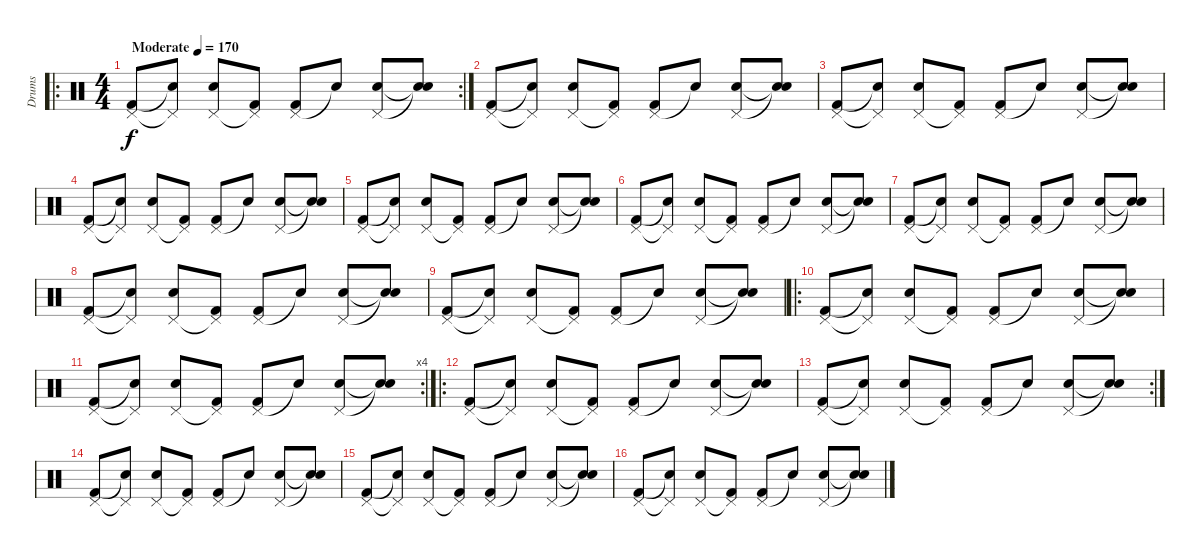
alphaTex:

\track ("Drums" "Drums") {instrument percussion}
\staff {score}
\articulation defaults
\ro
\rc 2
\ts (4 4)
\tempo (170 "Moderate")
\clef neutral
\ks c
("Pedal Hi-Hat (hit)" "Kick (hit) 2").8{dy f} ("Pedal Hi-Hat (hit)"{t} "Snare (hit)"{t}).8 ("Pedal Hi-Hat (hit)" "Snare (hit) 2").8 ("Pedal Hi-Hat (hit)"{t} "Kick (hit) 2").8 ("Pedal Hi-Hat (hit)" "Kick (hit) 2").8 "Snare (hit)"{t}.8 ("Pedal Hi-Hat (hit)" "Snare (hit) 2").8 ("Snare (hit)"{t} "Snare (hit)"{t}).8 |
("Pedal Hi-Hat (hit)" "Kick (hit) 2").8 ("Pedal Hi-Hat (hit)"{t} "Snare (hit)"{t}).8 ("Pedal Hi-Hat (hit)" "Snare (hit) 2").8 ("Pedal Hi-Hat (hit)"{t} "Kick (hit) 2").8 ("Pedal Hi-Hat (hit)" "Kick (hit) 2").8 "Snare (hit)"{t}.8 ("Pedal Hi-Hat (hit)" "Snare (hit) 2").8 ("Snare (hit)"{t} "Snare (hit)"{t}).8 |
("Pedal Hi-Hat (hit)" "Kick (hit) 2").8 ("Pedal Hi-Hat (hit)"{t} "Snare (hit)"{t}).8 ("Pedal Hi-Hat (hit)" "Snare (hit) 2").8 ("Pedal Hi-Hat (hit)"{t} "Kick (hit) 2").8 ("Pedal Hi-Hat (hit)" "Kick (hit) 2").8 "Snare (hit)"{t}.8 ("Pedal Hi-Hat (hit)" "Snare (hit) 2").8 ("Snare (hit)"{t} "Snare (hit)"{t}).8 |
("Pedal Hi-Hat (hit)" "Kick (hit) 2").8 ("Pedal Hi-Hat (hit)"{t} "Snare (hit)"{t}).8 ("Pedal Hi-Hat (hit)" "Snare (hit) 2").8 ("Pedal Hi-Hat (hit)"{t} "Kick (hit) 2").8 ("Pedal Hi-Hat (hit)" "Kick (hit) 2").8 "Snare (hit)"{t}.8 ("Pedal Hi-Hat (hit)" "Snare (hit) 2").8 ("Snare (hit)"{t} "Snare (hit)"{t}).8 |
("Pedal Hi-Hat (hit)" "Kick (hit) 2").8 ("Pedal Hi-Hat (hit)"{t} "Snare (hit)"{t}).8 ("Pedal Hi-Hat (hit)" "Snare (hit) 2").8 ("Pedal Hi-Hat (hit)"{t} "Kick (hit) 2").8 ("Pedal Hi-Hat (hit)" "Kick (hit) 2").8 "Snare (hit)"{t}.8 ("Pedal Hi-Hat (hit)" "Snare (hit) 2").8 ("Snare (hit)"{t} "Snare (hit)"{t}).8 |
("Pedal Hi-Hat (hit)" "Kick (hit) 2").8 ("Pedal Hi-Hat (hit)"{t} "Snare (hit)"{t}).8 ("Pedal Hi-Hat (hit)" "Snare (hit) 2").8 ("Pedal Hi-Hat (hit)"{t} "Kick (hit) 2").8 ("Pedal Hi-Hat (hit)" "Kick (hit) 2").8 "Snare (hit)"{t}.8 ("Pedal Hi-Hat (hit)" "Snare (hit) 2").8 ("Snare (hit)"{t} "Snare (hit)"{t}).8 |
("Pedal Hi-Hat (hit)" "Kick (hit) 2").8 ("Pedal Hi-Hat (hit)"{t} "Snare (hit)"{t}).8 ("Pedal Hi-Hat (hit)" "Snare (hit) 2").8 ("Pedal Hi-Hat (hit)"{t} "Kick (hit) 2").8 ("Pedal Hi-Hat (hit)" "Kick (hit) 2").8 "Snare (hit)"{t}.8 ("Pedal Hi-Hat (hit)" "Snare (hit) 2").8 ("Snare (hit)"{t} "Snare (hit)"{t}).8 |
("Pedal Hi-Hat (hit)" "Kick (hit) 2").8 ("Pedal Hi-Hat (hit)"{t} "Snare (hit)"{t}).8 ("Pedal Hi-Hat (hit)" "Snare (hit) 2").8 ("Pedal Hi-Hat (hit)"{t} "Kick (hit) 2").8 ("Pedal Hi-Hat (hit)" "Kick (hit) 2").8 "Snare (hit)"{t}.8 ("Pedal Hi-Hat (hit)" "Snare (hit) 2").8 ("Snare (hit)"{t} "Snare (hit)"{t}).8 |
("Pedal Hi-Hat (hit)" "Kick (hit) 2").8 ("Pedal Hi-Hat (hit)"{t} "Snare (hit)"{t}).8 ("Pedal Hi-Hat (hit)" "Snare (hit) 2").8 ("Pedal Hi-Hat (hit)"{t} "Kick (hit) 2").8 ("Pedal Hi-Hat (hit)" "Kick (hit) 2").8 "Snare (hit)"{t}.8 ("Pedal Hi-Hat (hit)" "Snare (hit) 2").8 ("Snare (hit)"{t} "Snare (hit)"{t}).8 |
\ro
("Pedal Hi-Hat (hit)" "Kick (hit) 2").8 ("Pedal Hi-Hat (hit)"{t} "Snare (hit)"{t}).8 ("Pedal Hi-Hat (hit)" "Snare (hit) 2").8 ("Pedal Hi-Hat (hit)"{t} "Kick (hit) 2").8 ("Pedal Hi-Hat (hit)" "Kick (hit) 2").8 "Snare (hit)"{t}.8 ("Pedal Hi-Hat (hit)" "Snare (hit) 2").8 ("Snare (hit)"{t} "Snare (hit)"{t}).8 |
\rc 4
("Pedal Hi-Hat (hit)" "Kick (hit) 2").8 ("Pedal Hi-Hat (hit)"{t} "Snare (hit)"{t}).8 ("Pedal Hi-Hat (hit)" "Snare (hit) 2").8 ("Pedal Hi-Hat (hit)"{t} "Kick (hit) 2").8 ("Pedal Hi-Hat (hit)" "Kick (hit) 2").8 "Snare (hit)"{t}.8 ("Pedal Hi-Hat (hit)" "Snare (hit) 2").8 ("Snare (hit)"{t} "Snare (hit)"{t}).8 |
\ro
("Pedal Hi-Hat (hit)" "Kick (hit) 2").8 ("Pedal Hi-Hat (hit)"{t} "Snare (hit)"{t}).8 ("Pedal Hi-Hat (hit)" "Snare (hit) 2").8 ("Pedal Hi-Hat (hit)"{t} "Kick (hit) 2").8 ("Pedal Hi-Hat (hit)" "Kick (hit) 2").8 "Snare (hit)"{t}.8 ("Pedal Hi-Hat (hit)" "Snare (hit) 2").8 ("Snare (hit)"{t} "Snare (hit)"{t}).8 |
\rc 2
("Pedal Hi-Hat (hit)" "Kick (hit) 2").8 ("Pedal Hi-Hat (hit)"{t} "Snare (hit)"{t}).8 ("Pedal Hi-Hat (hit)" "Snare (hit) 2").8 ("Pedal Hi-Hat (hit)"{t} "Kick (hit) 2").8 ("Pedal Hi-Hat (hit)" "Kick (hit) 2").8 "Snare (hit)"{t}.8 ("Pedal Hi-Hat (hit)" "Snare (hit) 2").8 ("Snare (hit)"{t} "Snare (hit)"{t}).8 |
("Pedal Hi-Hat (hit)" "Kick (hit) 2").8 ("Pedal Hi-Hat (hit)"{t} "Snare (hit)"{t}).8 ("Pedal Hi-Hat (hit)" "Snare (hit) 2").8 ("Pedal Hi-Hat (hit)"{t} "Kick (hit) 2").8 ("Pedal Hi-Hat (hit)" "Kick (hit) 2").8 "Snare (hit)"{t}.8 ("Pedal Hi-Hat (hit)" "Snare (hit) 2").8 ("Snare (hit)"{t} "Snare (hit)"{t}).8 |
("Pedal Hi-Hat (hit)" "Kick (hit) 2").8 ("Pedal Hi-Hat (hit)"{t} "Snare (hit)"{t}).8 ("Pedal Hi-Hat (hit)" "Snare (hit) 2").8 ("Pedal Hi-Hat (hit)"{t} "Kick (hit) 2").8 ("Pedal Hi-Hat (hit)" "Kick (hit) 2").8 "Snare (hit)"{t}.8 ("Pedal Hi-Hat (hit)" "Snare (hit) 2").8 ("Snare (hit)"{t} "Snare (hit)"{t}).8 |
("Pedal Hi-Hat (hit)" "Kick (hit) 2").8 ("Pedal Hi-Hat (hit)"{t} "Snare (hit)"{t}).8 ("Pedal Hi-Hat (hit)" "Snare (hit) 2").8 ("Pedal Hi-Hat (hit)"{t} "Kick (hit) 2").8 ("Pedal Hi-Hat (hit)" "Kick (hit) 2").8 "Snare (hit)"{t}.8 ("Pedal Hi-Hat (hit)" "Snare (hit) 2").8 ("Snare (hit)"{t} "Snare (hit)"{t}).8
